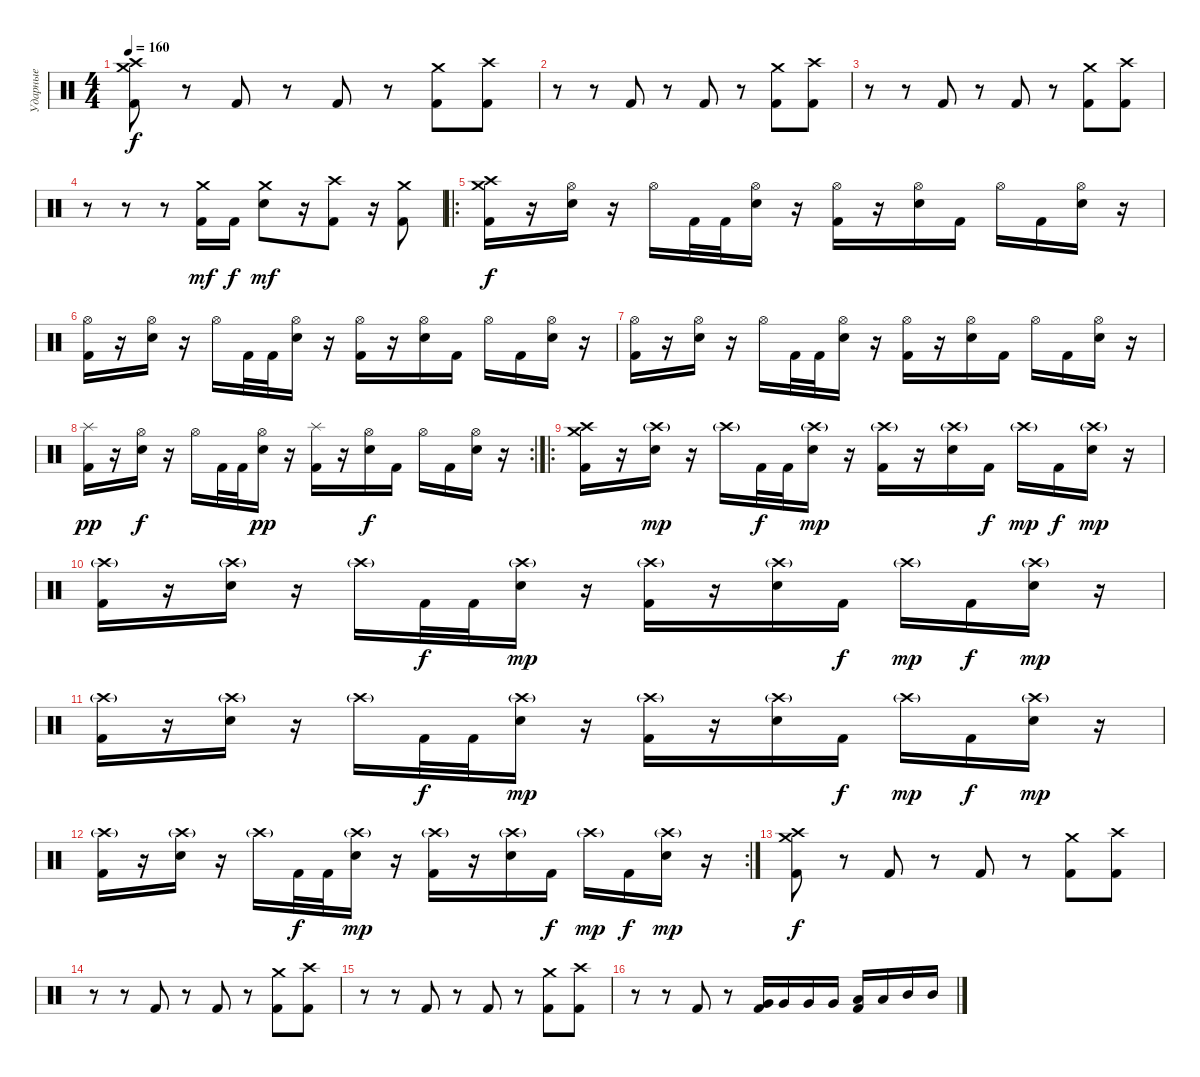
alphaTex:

\track ("Ударные" "Ударные") {instrument percussion}
\staff
\articulation defaults
\ts (4 4)
\tempo 160
\clef neutral
\ks c
("Crash high (hit)" "Crash medium (hit)" "Kick (hit) 2").8{dy f} r.8 "Kick (hit) 2".8 r.8 "Kick (hit) 2".8 r.8 ("Crash medium (hit)" "Kick (hit) 2").8 ("Crash high (hit)" "Kick (hit) 2").8 |
r.8 r.8 "Kick (hit) 2".8 r.8 "Kick (hit) 2".8 r.8 ("Crash medium (hit)" "Kick (hit) 2").8 ("Crash high (hit)" "Kick (hit) 2").8 |
r.8 r.8 "Kick (hit) 2".8 r.8 "Kick (hit) 2".8 r.8 ("Crash medium (hit)" "Kick (hit) 2").8 ("Crash high (hit)" "Kick (hit) 2").8 |
r.8 r.8 r.8 ("Crash medium (hit)" "Kick (hit) 2").16{dy mf} "Kick (hit) 2".16{dy f} ("Crash medium (hit)" "Snare (hit) 2").8{dy mf} r.16 ("Crash high (hit)" "Kick (hit) 2").8 r.16 ("Crash medium (hit)" "Kick (hit) 2").8 |
\ro
("Crash high (hit)" "Crash medium (hit)" "Kick (hit) 2").16{dy f} r.16 ("Hi-Hat (open)" "Snare (hit) 2").16 r.16 "Hi-Hat (open)".16 "Kick (hit) 2".32 "Kick (hit) 2".32 ("Hi-Hat (open)" "Snare (hit) 2").16 r.16 ("Hi-Hat (open)" "Kick (hit) 2").16 r.16 ("Hi-Hat (open)" "Snare (hit) 2").16 "Kick (hit) 2".16 "Hi-Hat (open)".16 "Kick (hit) 2".16 ("Hi-Hat (open)" "Snare (hit) 2").16 r.16 |
("Hi-Hat (open)" "Kick (hit) 2").16 r.16 ("Hi-Hat (open)" "Snare (hit) 2").16 r.16 "Hi-Hat (open)".16 "Kick (hit) 2".32 "Kick (hit) 2".32 ("Hi-Hat (open)" "Snare (hit) 2").16 r.16 ("Hi-Hat (open)" "Kick (hit) 2").16 r.16 ("Hi-Hat (open)" "Snare (hit) 2").16 "Kick (hit) 2".16 "Hi-Hat (open)".16 "Kick (hit) 2".16 ("Hi-Hat (open)" "Snare (hit) 2").16 r.16 |
("Hi-Hat (open)" "Kick (hit) 2").16 r.16 ("Hi-Hat (open)" "Snare (hit) 2").16 r.16 "Hi-Hat (open)".16 "Kick (hit) 2".32 "Kick (hit) 2".32 ("Hi-Hat (open)" "Snare (hit) 2").16 r.16 ("Hi-Hat (open)" "Kick (hit) 2").16 r.16 ("Hi-Hat (open)" "Snare (hit) 2").16 "Kick (hit) 2".16 "Hi-Hat (open)".16 "Kick (hit) 2".16 ("Hi-Hat (open)" "Snare (hit) 2").16 r.16 |
\rc 2
("Splash (hit)" "Kick (hit) 2").16{dy pp} r.16 ("Hi-Hat (open)" "Snare (hit) 2").16{dy f} r.16 "Hi-Hat (open)".16 "Kick (hit) 2".32 "Kick (hit) 2".32 ("Hi-Hat (open)" "Snare (hit) 2").16{dy pp} r.16 ("Splash (hit)" "Kick (hit) 2").16 r.16 ("Hi-Hat (open)" "Snare (hit) 2").16{dy f} "Kick (hit) 2".16 "Hi-Hat (open)".16 "Kick (hit) 2".16 ("Hi-Hat (open)" "Snare (hit) 2").16 r.16 |
\ro
("Crash high (hit)" "Crash medium (hit)" "Kick (hit) 2").16 r.16 ("Crash high (hit)"{g} "Snare (hit) 2").16{dy mp} r.16 "Crash high (hit)"{g}.16 "Kick (hit) 2".32{dy f} "Kick (hit) 2".32 ("Crash high (hit)"{g} "Snare (hit) 2").16{dy mp} r.16 ("Crash high (hit)"{g} "Kick (hit) 2").16 r.16 ("Crash high (hit)"{g} "Snare (hit) 2").16 "Kick (hit) 2".16{dy f} "Crash high (hit)"{g}.16{dy mp} "Kick (hit) 2".16{dy f} ("Crash high (hit)"{g} "Snare (hit) 2").16{dy mp} r.16 |
("Crash high (hit)"{g} "Kick (hit) 2").16 r.16 ("Crash high (hit)"{g} "Snare (hit) 2").16 r.16 "Crash high (hit)"{g}.16 "Kick (hit) 2".32{dy f} "Kick (hit) 2".32 ("Crash high (hit)"{g} "Snare (hit) 2").16{dy mp} r.16 ("Crash high (hit)"{g} "Kick (hit) 2").16 r.16 ("Crash high (hit)"{g} "Snare (hit) 2").16 "Kick (hit) 2".16{dy f} "Crash high (hit)"{g}.16{dy mp} "Kick (hit) 2".16{dy f} ("Crash high (hit)"{g} "Snare (hit) 2").16{dy mp} r.16 |
("Crash high (hit)"{g} "Kick (hit) 2").16 r.16 ("Crash high (hit)"{g} "Snare (hit) 2").16 r.16 "Crash high (hit)"{g}.16 "Kick (hit) 2".32{dy f} "Kick (hit) 2".32 ("Crash high (hit)"{g} "Snare (hit) 2").16{dy mp} r.16 ("Crash high (hit)"{g} "Kick (hit) 2").16 r.16 ("Crash high (hit)"{g} "Snare (hit) 2").16 "Kick (hit) 2".16{dy f} "Crash high (hit)"{g}.16{dy mp} "Kick (hit) 2".16{dy f} ("Crash high (hit)"{g} "Snare (hit) 2").16{dy mp} r.16 |
\rc 2
("Crash high (hit)"{g} "Kick (hit) 2").16 r.16 ("Crash high (hit)"{g} "Snare (hit) 2").16 r.16 "Crash high (hit)"{g}.16 "Kick (hit) 2".32{dy f} "Kick (hit) 2".32 ("Crash high (hit)"{g} "Snare (hit) 2").16{dy mp} r.16 ("Crash high (hit)"{g} "Kick (hit) 2").16 r.16 ("Crash high (hit)"{g} "Snare (hit) 2").16 "Kick (hit) 2".16{dy f} "Crash high (hit)"{g}.16{dy mp} "Kick (hit) 2".16{dy f} ("Crash high (hit)"{g} "Snare (hit) 2").16{dy mp} r.16 |
("Crash high (hit)" "Crash medium (hit)" "Kick (hit) 2").8{dy f} r.8 "Kick (hit) 2".8 r.8 "Kick (hit) 2".8 r.8 ("Crash medium (hit)" "Kick (hit) 2").8 ("Crash high (hit)" "Kick (hit) 2").8 |
r.8 r.8 "Kick (hit) 2".8 r.8 "Kick (hit) 2".8 r.8 ("Crash medium (hit)" "Kick (hit) 2").8 ("Crash high (hit)" "Kick (hit) 2").8 |
r.8 r.8 "Kick (hit) 2".8 r.8 "Kick (hit) 2".8 r.8 ("Crash medium (hit)" "Kick (hit) 2").8 ("Crash high (hit)" "Kick (hit) 2").8 |
r.8 r.8 "Kick (hit) 2".8 r.8 ("Very Low Tom (hit)" "Kick (hit) 2").16 "Very Low Tom (hit)".16 "Very Low Tom (hit)".16 "Very Low Tom (hit)".16 ("Low Tom (hit)" "Kick (hit) 2").16 "Low Tom (hit)".16 "Mid Tom (hit)".16 "Mid Tom (hit)".16
